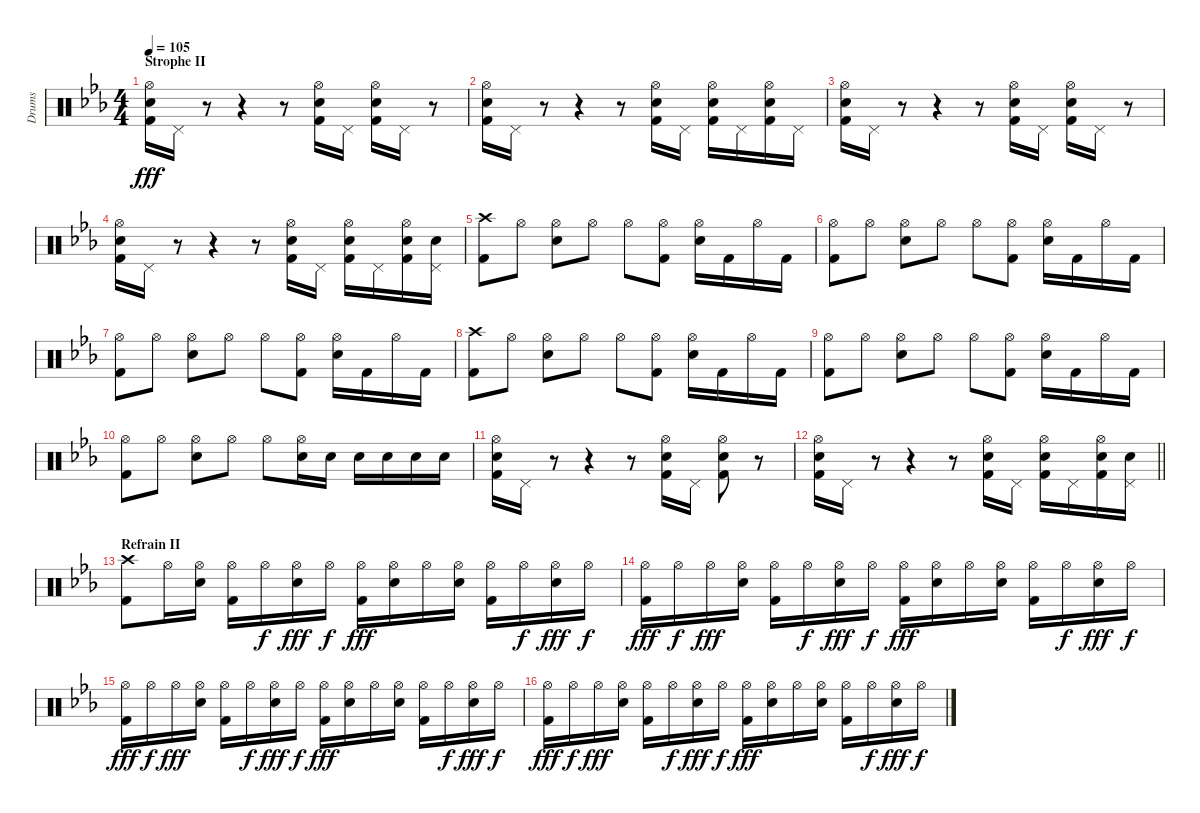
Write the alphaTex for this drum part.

\track ("Drums" "Drums") {instrument percussion}
\staff {score}
\articulation defaults
\ts (4 4)
\section ("" "Strophe II")
\tempo 105
\clef neutral
\ks eb
("Hi-Hat (open)" "Snare (hit) 2" "Kick (hit) 2").16{dy fff} "Pedal Hi-Hat (hit)".16 r.8 r.4 r.8 ("Hi-Hat (open)" "Snare (hit) 2" "Kick (hit) 2").16 "Pedal Hi-Hat (hit)".16 ("Hi-Hat (open)" "Snare (hit) 2" "Kick (hit) 2").16 "Pedal Hi-Hat (hit)".16 r.8 |
("Hi-Hat (open)" "Snare (hit) 2" "Kick (hit) 2").16 "Pedal Hi-Hat (hit)".16 r.8 r.4 r.8 ("Hi-Hat (open)" "Snare (hit) 2" "Kick (hit) 2").16 "Pedal Hi-Hat (hit)".16 ("Hi-Hat (open)" "Snare (hit) 2" "Kick (hit) 2").16 "Pedal Hi-Hat (hit)".16 ("Hi-Hat (open)" "Snare (hit) 2" "Kick (hit) 2").16 "Pedal Hi-Hat (hit)".16 |
("Hi-Hat (open)" "Snare (hit) 2" "Kick (hit) 2").16 "Pedal Hi-Hat (hit)".16 r.8 r.4 r.8 ("Hi-Hat (open)" "Snare (hit) 2" "Kick (hit) 2").16 "Pedal Hi-Hat (hit)".16 ("Hi-Hat (open)" "Snare (hit) 2" "Kick (hit) 2").16 "Pedal Hi-Hat (hit)".16 r.8 |
("Hi-Hat (open)" "Snare (hit) 2" "Kick (hit) 2").16 "Pedal Hi-Hat (hit)".16 r.8 r.4 r.8 ("Hi-Hat (open)" "Snare (hit) 2" "Kick (hit) 2").16 "Pedal Hi-Hat (hit)".16 ("Hi-Hat (open)" "Snare (hit) 2" "Kick (hit) 2").16 "Pedal Hi-Hat (hit)".16 ("Hi-Hat (open)" "Snare (hit) 2" "Kick (hit) 2").16 ("Pedal Hi-Hat (hit)" "Snare (hit) 2").16 |
("Crash high (hit)" "Kick (hit) 2").8 "Hi-Hat (open)".8 ("Hi-Hat (open)" "Snare (hit) 2").8 "Hi-Hat (open)".8 "Hi-Hat (open)".8 ("Hi-Hat (open)" "Kick (hit) 2").8 ("Hi-Hat (open)" "Snare (hit) 2").16 "Kick (hit) 2".16 "Hi-Hat (open)".16 "Kick (hit) 2".16 |
("Hi-Hat (open)" "Kick (hit) 2").8 "Hi-Hat (open)".8 ("Hi-Hat (open)" "Snare (hit) 2").8 "Hi-Hat (open)".8 "Hi-Hat (open)".8 ("Hi-Hat (open)" "Kick (hit) 2").8 ("Hi-Hat (open)" "Snare (hit) 2").16 "Kick (hit) 2".16 "Hi-Hat (open)".16 "Kick (hit) 2".16 |
("Hi-Hat (open)" "Kick (hit) 2").8 "Hi-Hat (open)".8 ("Hi-Hat (open)" "Snare (hit) 2").8 "Hi-Hat (open)".8 "Hi-Hat (open)".8 ("Hi-Hat (open)" "Kick (hit) 2").8 ("Hi-Hat (open)" "Snare (hit) 2").16 "Kick (hit) 2".16 "Hi-Hat (open)".16 "Kick (hit) 2".16 |
("Crash high (hit)" "Kick (hit) 2").8 "Hi-Hat (open)".8 ("Hi-Hat (open)" "Snare (hit) 2").8 "Hi-Hat (open)".8 "Hi-Hat (open)".8 ("Hi-Hat (open)" "Kick (hit) 2").8 ("Hi-Hat (open)" "Snare (hit) 2").16 "Kick (hit) 2".16 "Hi-Hat (open)".16 "Kick (hit) 2".16 |
("Hi-Hat (open)" "Kick (hit) 2").8 "Hi-Hat (open)".8 ("Hi-Hat (open)" "Snare (hit) 2").8 "Hi-Hat (open)".8 "Hi-Hat (open)".8 ("Hi-Hat (open)" "Kick (hit) 2").8 ("Hi-Hat (open)" "Snare (hit) 2").16 "Kick (hit) 2".16 "Hi-Hat (open)".16 "Kick (hit) 2".16 |
("Hi-Hat (open)" "Kick (hit) 2").8 "Hi-Hat (open)".8 ("Hi-Hat (open)" "Snare (hit) 2").8 "Hi-Hat (open)".8 "Hi-Hat (open)".8 ("Hi-Hat (open)" "Snare (hit) 2").16 "Snare (hit) 2".16 "Snare (hit) 2".16 "Snare (hit) 2".16 "Snare (hit) 2".16 "Snare (hit) 2".16 |
("Hi-Hat (open)" "Snare (hit) 2" "Kick (hit) 2").16 "Pedal Hi-Hat (hit)".16 r.8 r.4 r.8 ("Hi-Hat (open)" "Snare (hit) 2" "Kick (hit) 2").16 "Pedal Hi-Hat (hit)".16 ("Hi-Hat (open)" "Snare (hit) 2" "Kick (hit) 2").8 r.8 |
\barLineRight lightlight
("Hi-Hat (open)" "Snare (hit) 2" "Kick (hit) 2").16 "Pedal Hi-Hat (hit)".16 r.8 r.4 r.8 ("Hi-Hat (open)" "Snare (hit) 2" "Kick (hit) 2").16 "Pedal Hi-Hat (hit)".16 ("Hi-Hat (open)" "Snare (hit) 2" "Kick (hit) 2").16 "Pedal Hi-Hat (hit)".16 ("Hi-Hat (open)" "Snare (hit) 2" "Kick (hit) 2").16 ("Pedal Hi-Hat (hit)" "Snare (hit) 2").16 |
\section ("" "Refrain II")
("Crash high (hit)" "Kick (hit) 2").8 "Hi-Hat (open)".16 ("Hi-Hat (open)" "Snare (hit) 2").16 ("Hi-Hat (open)" "Kick (hit) 2").16 "Hi-Hat (open)".16{dy f} ("Hi-Hat (open)" "Snare (hit) 2").16{dy fff} "Hi-Hat (open)".16{dy f} ("Hi-Hat (open)" "Kick (hit) 2").16{dy fff} ("Hi-Hat (open)" "Snare (hit) 2").16 "Hi-Hat (open)".16 ("Hi-Hat (open)" "Snare (hit) 2").16 ("Hi-Hat (open)" "Kick (hit) 2").16 "Hi-Hat (open)".16{dy f} ("Hi-Hat (open)" "Snare (hit) 2").16{dy fff} "Hi-Hat (open)".16{dy f} |
("Hi-Hat (open)" "Kick (hit) 2").16{dy fff} "Hi-Hat (open)".16{dy f} "Hi-Hat (open)".16{dy fff} ("Hi-Hat (open)" "Snare (hit) 2").16 ("Hi-Hat (open)" "Kick (hit) 2").16 "Hi-Hat (open)".16{dy f} ("Hi-Hat (open)" "Snare (hit) 2").16{dy fff} "Hi-Hat (open)".16{dy f} ("Hi-Hat (open)" "Kick (hit) 2").16{dy fff} ("Hi-Hat (open)" "Snare (hit) 2").16 "Hi-Hat (open)".16 ("Hi-Hat (open)" "Snare (hit) 2").16 ("Hi-Hat (open)" "Kick (hit) 2").16 "Hi-Hat (open)".16{dy f} ("Hi-Hat (open)" "Snare (hit) 2").16{dy fff} "Hi-Hat (open)".16{dy f} |
("Hi-Hat (open)" "Kick (hit) 2").16{dy fff} "Hi-Hat (open)".16{dy f} "Hi-Hat (open)".16{dy fff} ("Hi-Hat (open)" "Snare (hit) 2").16 ("Hi-Hat (open)" "Kick (hit) 2").16 "Hi-Hat (open)".16{dy f} ("Hi-Hat (open)" "Snare (hit) 2").16{dy fff} "Hi-Hat (open)".16{dy f} ("Hi-Hat (open)" "Kick (hit) 2").16{dy fff} ("Hi-Hat (open)" "Snare (hit) 2").16 "Hi-Hat (open)".16 ("Hi-Hat (open)" "Snare (hit) 2").16 ("Hi-Hat (open)" "Kick (hit) 2").16 "Hi-Hat (open)".16{dy f} ("Hi-Hat (open)" "Snare (hit) 2").16{dy fff} "Hi-Hat (open)".16{dy f} |
("Hi-Hat (open)" "Kick (hit) 2").16{dy fff} "Hi-Hat (open)".16{dy f} "Hi-Hat (open)".16{dy fff} ("Hi-Hat (open)" "Snare (hit) 2").16 ("Hi-Hat (open)" "Kick (hit) 2").16 "Hi-Hat (open)".16{dy f} ("Hi-Hat (open)" "Snare (hit) 2").16{dy fff} "Hi-Hat (open)".16{dy f} ("Hi-Hat (open)" "Kick (hit) 2").16{dy fff} ("Hi-Hat (open)" "Snare (hit) 2").16 "Hi-Hat (open)".16 ("Hi-Hat (open)" "Snare (hit) 2").16 ("Hi-Hat (open)" "Kick (hit) 2").16 "Hi-Hat (open)".16{dy f} ("Hi-Hat (open)" "Snare (hit) 2").16{dy fff} "Hi-Hat (open)".16{dy f}
